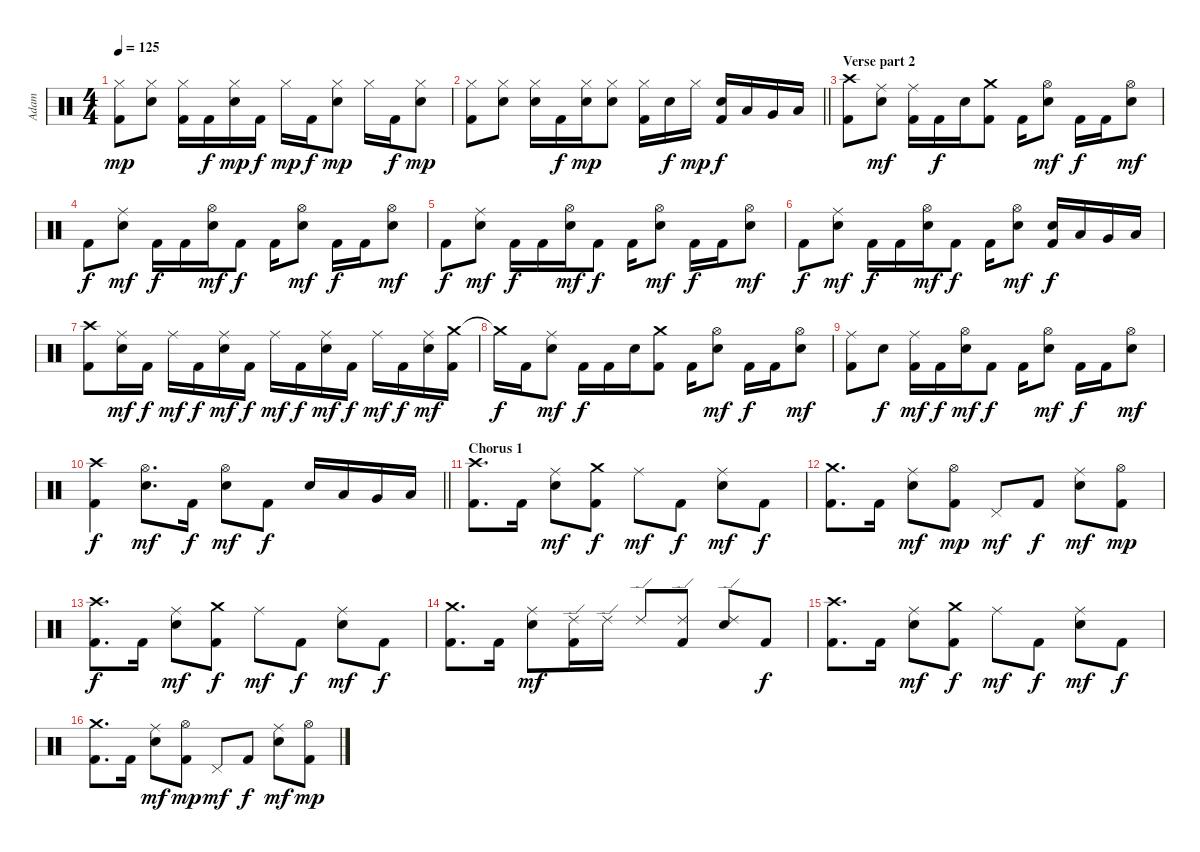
\track ("Adam" "Adam") {instrument percussion}
\staff {score}
\articulation defaults
\ts (4 4)
\tempo 125
\clef neutral
\ks c
("Hi-Hat (closed)" "Kick (hit) 2").8{dy mp} ("Hi-Hat (closed)" "Electric Snare (hit)").8 ("Hi-Hat (closed)" "Kick (hit) 2").16 "Kick (hit) 2".16{dy f} ("Hi-Hat (closed)" "Electric Snare (hit)").16{dy mp} "Kick (hit) 2".16{dy f} "Hi-Hat (closed)".16{dy mp} "Kick (hit) 2".16{dy f} ("Hi-Hat (closed)" "Electric Snare (hit)").8{dy mp} "Hi-Hat (closed)".16 "Kick (hit) 2".16{dy f} ("Hi-Hat (closed)" "Electric Snare (hit)").8{dy mp} |
\barLineRight lightlight
("Hi-Hat (closed)" "Kick (hit) 2").8 ("Hi-Hat (closed)" "Electric Snare (hit)").8 ("Hi-Hat (closed)" "Electric Snare (hit)").16 "Kick (hit) 2".16{dy f} ("Hi-Hat (closed)" "Electric Snare (hit)").16{dy mp} ("Hi-Hat (closed)" "Electric Snare (hit)").8 ("Hi-Hat (closed)" "Kick (hit) 2").16 "Electric Snare (hit)".16{dy f} "Hi-Hat (closed)".16{dy mp} ("Electric Snare (hit)" "Kick (hit) 2").16{dy f} "Low Tom (hit)".16 "Very Low Tom (hit)".16 "Low Floor Tom (hit)".16 |
\section ("" "Verse part 2")
("Crash high (hit)" "Kick (hit) 2").8 ("Ride (middle)" "Electric Snare (hit)").8{dy mf} ("Ride (middle)" "Kick (hit) 2").16 "Kick (hit) 2".16{dy f} "Electric Snare (hit)".16 ("Crash medium (hit)" "Kick (hit) 2").8 "Kick (hit) 2".16 ("Hi-Hat (open)" "Electric Snare (hit)").8{dy mf} "Kick (hit) 2".16{dy f} "Kick (hit) 2".16 ("Hi-Hat (open)" "Electric Snare (hit)").8{dy mf} |
"Kick (hit) 2".8{dy f} ("Ride (middle)" "Electric Snare (hit)").8{dy mf} "Kick (hit) 2".16{dy f} "Kick (hit) 2".16 ("Hi-Hat (open)" "Electric Snare (hit)").16{dy mf} "Kick (hit) 2".8{dy f} "Kick (hit) 2".16 ("Hi-Hat (open)" "Electric Snare (hit)").8{dy mf} "Kick (hit) 2".16{dy f} "Kick (hit) 2".16 ("Hi-Hat (open)" "Electric Snare (hit)").8{dy mf} |
"Kick (hit) 2".8{dy f} ("Ride (middle)" "Electric Snare (hit)").8{dy mf} "Kick (hit) 2".16{dy f} "Kick (hit) 2".16 ("Hi-Hat (open)" "Electric Snare (hit)").16{dy mf} "Kick (hit) 2".8{dy f} "Kick (hit) 2".16 ("Hi-Hat (open)" "Electric Snare (hit)").8{dy mf} "Kick (hit) 2".16{dy f} "Kick (hit) 2".16 ("Hi-Hat (open)" "Electric Snare (hit)").8{dy mf} |
"Kick (hit) 2".8{dy f} ("Ride (middle)" "Electric Snare (hit)").8{dy mf} "Kick (hit) 2".16{dy f} "Kick (hit) 2".16 ("Hi-Hat (open)" "Electric Snare (hit)").16{dy mf} "Kick (hit) 2".8{dy f} "Kick (hit) 2".16 ("Hi-Hat (open)" "Electric Snare (hit)").8{dy mf} ("Electric Snare (hit)" "Kick (hit) 2").16{dy f} "Low Tom (hit)".16 "Very Low Tom (hit)".16 "Low Floor Tom (hit)".16 |
("Crash high (hit)" "Kick (hit) 2").8 ("Ride (middle)" "Electric Snare (hit)").16{dy mf} "Kick (hit) 2".16{dy f} "Ride (middle)".16{dy mf} "Kick (hit) 2".16{dy f} ("Ride (middle)" "Electric Snare (hit)").16{dy mf} "Kick (hit) 2".16{dy f} "Ride (middle)".16{dy mf} "Kick (hit) 2".16{dy f} ("Ride (middle)" "Electric Snare (hit)").16{dy mf} "Kick (hit) 2".16{dy f} "Ride (middle)".16{dy mf} "Kick (hit) 2".16{dy f} ("Ride (middle)" "Electric Snare (hit)").16{dy mf} ("Crash medium (hit)" "Kick (hit) 2").16 |
"Crash medium (hit)"{t}.16{dy f} "Kick (hit) 2".16 ("Ride (middle)" "Electric Snare (hit)").8{dy mf} "Kick (hit) 2".16{dy f} "Kick (hit) 2".16 "Electric Snare (hit)".16 ("Crash medium (hit)" "Kick (hit) 2").8 "Kick (hit) 2".16 ("Hi-Hat (open)" "Electric Snare (hit)").8{dy mf} "Kick (hit) 2".16{dy f} "Kick (hit) 2".16 ("Hi-Hat (open)" "Electric Snare (hit)").8{dy mf} |
("Ride (middle)" "Kick (hit) 2").8 "Electric Snare (hit)".8{dy f} ("Ride (middle)" "Kick (hit) 2").16{dy mf} "Kick (hit) 2".16{dy f} ("Hi-Hat (open)" "Electric Snare (hit)").16{dy mf} "Kick (hit) 2".8{dy f} "Kick (hit) 2".16 ("Hi-Hat (open)" "Electric Snare (hit)").8{dy mf} "Kick (hit) 2".16{dy f} "Kick (hit) 2".16 ("Hi-Hat (open)" "Electric Snare (hit)").8{dy mf} |
\barLineRight lightlight
("Crash high (hit)" "Kick (hit) 2").4{dy f} ("Hi-Hat (open)" "Electric Snare (hit)").8{d dy mf} "Kick (hit) 2".16{dy f} ("Hi-Hat (open)" "Electric Snare (hit)").8{dy mf} "Kick (hit) 2".8{dy f} "Electric Snare (hit)".16 "Low Tom (hit)".16 "Very Low Tom (hit)".16 "Low Floor Tom (hit)".16 |
\section ("" "Chorus 1")
("Crash high (hit)" "Kick (hit) 2").8{d} "Kick (hit) 2".16 ("Ride (middle)" "Electric Snare (hit)").8{dy mf} ("Crash medium (hit)" "Kick (hit) 2").8{dy f} "Ride (middle)".8{dy mf} "Kick (hit) 2".8{dy f} ("Ride (middle)" "Electric Snare (hit)").8{dy mf} "Kick (hit) 2".8{dy f} |
("Crash medium (hit)" "Kick (hit) 2").8{d} "Kick (hit) 2".16 ("Ride (middle)" "Electric Snare (hit)").8{dy mf} ("Hi-Hat (open)" "Kick (hit) 2").8{dy mp} "Pedal Hi-Hat (hit)".8{dy mf} "Kick (hit) 2".8{dy f} ("Ride (middle)" "Electric Snare (hit)").8{dy mf} ("Hi-Hat (open)" "Kick (hit) 2").8{dy mp} |
("Crash high (hit)" "Kick (hit) 2").8{d dy f} "Kick (hit) 2".16 ("Ride (middle)" "Electric Snare (hit)").8{dy mf} ("Crash medium (hit)" "Kick (hit) 2").8{dy f} "Ride (middle)".8{dy mf} "Kick (hit) 2".8{dy f} ("Ride (middle)" "Electric Snare (hit)").8{dy mf} "Kick (hit) 2".8{dy f} |
("Crash medium (hit)" "Kick (hit) 2").8{d} "Kick (hit) 2".16 ("Ride (middle)" "Electric Snare (hit)").8{dy mf} ("Ride (edge) 2" "Kick (hit) 2").16 "Ride (edge) 2".16 "Ride (edge) 2".8 ("Ride (edge) 2" "Kick (hit) 2").8 ("Ride (edge) 2" "Electric Snare (hit)").8 "Kick (hit) 2".8{dy f} |
("Crash high (hit)" "Kick (hit) 2").8{d} "Kick (hit) 2".16 ("Ride (middle)" "Electric Snare (hit)").8{dy mf} ("Crash medium (hit)" "Kick (hit) 2").8{dy f} "Ride (middle)".8{dy mf} "Kick (hit) 2".8{dy f} ("Ride (middle)" "Electric Snare (hit)").8{dy mf} "Kick (hit) 2".8{dy f} |
("Crash medium (hit)" "Kick (hit) 2").8{d} "Kick (hit) 2".16 ("Ride (middle)" "Electric Snare (hit)").8{dy mf} ("Hi-Hat (open)" "Kick (hit) 2").8{dy mp} "Pedal Hi-Hat (hit)".8{dy mf} "Kick (hit) 2".8{dy f} ("Ride (middle)" "Electric Snare (hit)").8{dy mf} ("Hi-Hat (open)" "Kick (hit) 2").8{dy mp}
